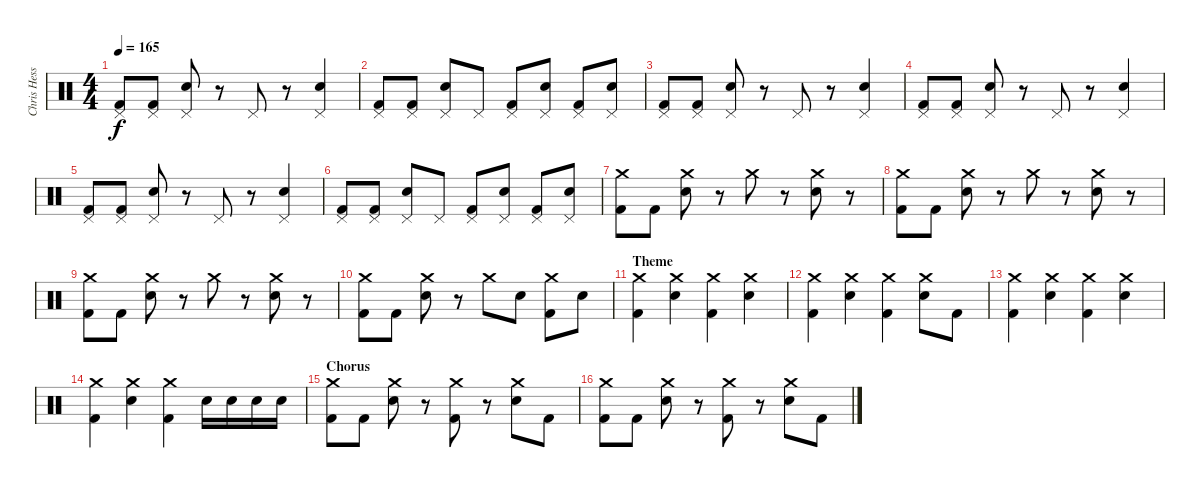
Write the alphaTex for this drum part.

\track ("Chris Hesse" "Chris Hess") {instrument percussion}
\staff {score}
\articulation defaults
\ts (4 4)
\tempo 165
\clef neutral
\ks c
("Pedal Hi-Hat (hit)" "Kick (hit) 2").8{dy f} ("Pedal Hi-Hat (hit)" "Kick (hit) 2").8 ("Pedal Hi-Hat (hit)" "Snare (hit) 2").8 r.8 "Pedal Hi-Hat (hit)".8 r.8 ("Pedal Hi-Hat (hit)" "Snare (hit) 2").4 |
("Pedal Hi-Hat (hit)" "Kick (hit) 2").8 ("Pedal Hi-Hat (hit)" "Kick (hit) 2").8 ("Pedal Hi-Hat (hit)" "Snare (hit) 2").8 "Pedal Hi-Hat (hit)".8 ("Pedal Hi-Hat (hit)" "Kick (hit) 2").8 ("Pedal Hi-Hat (hit)" "Snare (hit) 2").8 ("Pedal Hi-Hat (hit)" "Kick (hit) 2").8 ("Pedal Hi-Hat (hit)" "Snare (hit) 2").8 |
("Pedal Hi-Hat (hit)" "Kick (hit) 2").8 ("Pedal Hi-Hat (hit)" "Kick (hit) 2").8 ("Pedal Hi-Hat (hit)" "Snare (hit) 2").8 r.8 "Pedal Hi-Hat (hit)".8 r.8 ("Pedal Hi-Hat (hit)" "Snare (hit) 2").4 |
("Pedal Hi-Hat (hit)" "Kick (hit) 2").8 ("Pedal Hi-Hat (hit)" "Kick (hit) 2").8 ("Pedal Hi-Hat (hit)" "Snare (hit) 2").8 r.8 "Pedal Hi-Hat (hit)".8 r.8 ("Pedal Hi-Hat (hit)" "Snare (hit) 2").4 |
("Pedal Hi-Hat (hit)" "Kick (hit) 2").8 ("Pedal Hi-Hat (hit)" "Kick (hit) 2").8 ("Pedal Hi-Hat (hit)" "Snare (hit) 2").8 r.8 "Pedal Hi-Hat (hit)".8 r.8 ("Pedal Hi-Hat (hit)" "Snare (hit) 2").4 |
("Pedal Hi-Hat (hit)" "Kick (hit) 2").8 ("Pedal Hi-Hat (hit)" "Kick (hit) 2").8 ("Pedal Hi-Hat (hit)" "Snare (hit) 2").8 "Pedal Hi-Hat (hit)".8 ("Pedal Hi-Hat (hit)" "Kick (hit) 2").8 ("Pedal Hi-Hat (hit)" "Snare (hit) 2").8 ("Pedal Hi-Hat (hit)" "Kick (hit) 2").8 ("Pedal Hi-Hat (hit)" "Snare (hit) 2").8 |
("Crash medium (hit)" "Kick (hit) 2").8 "Kick (hit) 2".8 ("Crash medium (hit)" "Snare (hit) 2").8 r.8 "Crash medium (hit)".8 r.8 ("Crash medium (hit)" "Snare (hit) 2").8 r.8 |
("Crash medium (hit)" "Kick (hit) 2").8 "Kick (hit) 2".8 ("Crash medium (hit)" "Snare (hit) 2").8 r.8 "Crash medium (hit)".8 r.8 ("Crash medium (hit)" "Snare (hit) 2").8 r.8 |
("Crash medium (hit)" "Kick (hit) 2").8 "Kick (hit) 2".8 ("Crash medium (hit)" "Snare (hit) 2").8 r.8 "Crash medium (hit)".8 r.8 ("Crash medium (hit)" "Snare (hit) 2").8 r.8 |
("Crash medium (hit)" "Kick (hit) 2").8 "Kick (hit) 2".8 ("Crash medium (hit)" "Snare (hit) 2").8 r.8 "Crash medium (hit)".8 "Snare (hit) 2".8 ("Crash medium (hit)" "Kick (hit) 2").8 "Snare (hit) 2".8 |
\section ("" "Theme")
("Crash medium (hit)" "Kick (hit) 2").4 ("Crash medium (hit)" "Snare (hit) 2").4 ("Crash medium (hit)" "Kick (hit) 2").4 ("Crash medium (hit)" "Snare (hit) 2").4 |
("Crash medium (hit)" "Kick (hit) 2").4 ("Crash medium (hit)" "Snare (hit) 2").4 ("Crash medium (hit)" "Kick (hit) 2").4 ("Crash medium (hit)" "Snare (hit) 2").8 "Kick (hit) 2".8 |
("Crash medium (hit)" "Kick (hit) 2").4 ("Crash medium (hit)" "Snare (hit) 2").4 ("Crash medium (hit)" "Kick (hit) 2").4 ("Crash medium (hit)" "Snare (hit) 2").4 |
("Crash medium (hit)" "Kick (hit) 2").4 ("Crash medium (hit)" "Snare (hit) 2").4 ("Crash medium (hit)" "Kick (hit) 2").4 "Snare (hit) 2".16 "Snare (hit) 2".16 "Snare (hit) 2".16 "Snare (hit) 2".16 |
\section ("" "Chorus")
("Crash medium (hit)" "Kick (hit) 2").8 "Kick (hit) 2".8 ("Crash medium (hit)" "Snare (hit) 2").8 r.8 ("Crash medium (hit)" "Kick (hit) 2").8 r.8 ("Crash medium (hit)" "Snare (hit) 2").8 "Kick (hit) 2".8 |
("Crash medium (hit)" "Kick (hit) 2").8 "Kick (hit) 2".8 ("Crash medium (hit)" "Snare (hit) 2").8 r.8 ("Crash medium (hit)" "Kick (hit) 2").8 r.8 ("Crash medium (hit)" "Snare (hit) 2").8 "Kick (hit) 2".8
